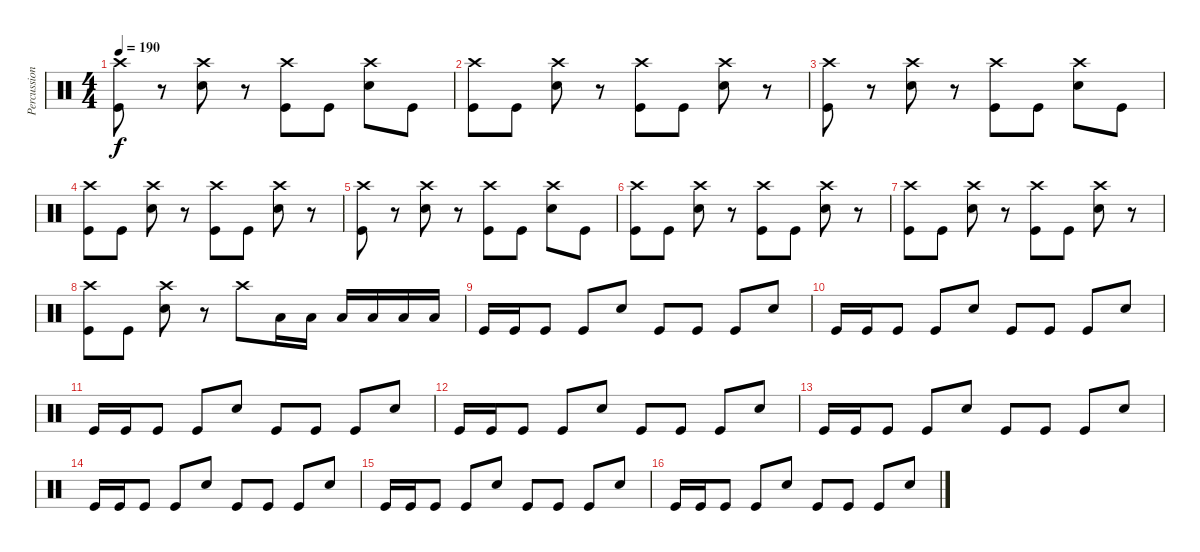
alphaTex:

\track ("Percussion" "Percussion") {instrument percussion}
\staff {score}
\articulation defaults
\ts (4 4)
\tempo 190
\clef neutral
\ks c
("Crash high (hit)" "Kick (hit)").8{dy f} r.8 ("Crash high (hit)" "Electric Snare (hit)").8 r.8 ("Crash high (hit)" "Kick (hit)").8 "Kick (hit)".8 ("Crash high (hit)" "Electric Snare (hit)").8 "Kick (hit)".8 |
("Crash high (hit)" "Kick (hit)").8 "Kick (hit)".8 ("Crash high (hit)" "Electric Snare (hit)").8 r.8 ("Crash high (hit)" "Kick (hit)").8 "Kick (hit)".8 ("Crash high (hit)" "Electric Snare (hit)").8 r.8 |
("Crash high (hit)" "Kick (hit)").8 r.8 ("Crash high (hit)" "Electric Snare (hit)").8 r.8 ("Crash high (hit)" "Kick (hit)").8 "Kick (hit)".8 ("Crash high (hit)" "Electric Snare (hit)").8 "Kick (hit)".8 |
("Crash high (hit)" "Kick (hit)").8 "Kick (hit)".8 ("Crash high (hit)" "Electric Snare (hit)").8 r.8 ("Crash high (hit)" "Kick (hit)").8 "Kick (hit)".8 ("Crash high (hit)" "Electric Snare (hit)").8 r.8 |
("Crash high (hit)" "Kick (hit)").8 r.8 ("Crash high (hit)" "Electric Snare (hit)").8 r.8 ("Crash high (hit)" "Kick (hit)").8 "Kick (hit)".8 ("Crash high (hit)" "Electric Snare (hit)").8 "Kick (hit)".8 |
("Crash high (hit)" "Kick (hit)").8 "Kick (hit)".8 ("Crash high (hit)" "Electric Snare (hit)").8 r.8 ("Crash high (hit)" "Kick (hit)").8 "Kick (hit)".8 ("Crash high (hit)" "Electric Snare (hit)").8 r.8 |
("Crash high (hit)" "Kick (hit)").8 "Kick (hit)".8 ("Crash high (hit)" "Electric Snare (hit)").8 r.8 ("Crash high (hit)" "Kick (hit)").8 "Kick (hit)".8 ("Crash high (hit)" "Electric Snare (hit)").8 r.8 |
("Crash high (hit)" "Kick (hit)").8 "Kick (hit)".8 ("Crash high (hit)" "Electric Snare (hit)").8 r.8 "Crash high (hit)".8 "Low Tom (hit)".16 "Low Tom (hit)".16 "Low Tom (hit)".16 "Low Tom (hit)".16 "Low Tom (hit)".16 "Low Tom (hit)".16 |
"Kick (hit)".16 "Kick (hit)".16 "Kick (hit)".8 "Kick (hit)".8 "Electric Snare (hit)".8 "Kick (hit)".8 "Kick (hit)".8 "Kick (hit)".8 "Electric Snare (hit)".8 |
"Kick (hit)".16 "Kick (hit)".16 "Kick (hit)".8 "Kick (hit)".8 "Electric Snare (hit)".8 "Kick (hit)".8 "Kick (hit)".8 "Kick (hit)".8 "Electric Snare (hit)".8 |
"Kick (hit)".16 "Kick (hit)".16 "Kick (hit)".8 "Kick (hit)".8 "Electric Snare (hit)".8 "Kick (hit)".8 "Kick (hit)".8 "Kick (hit)".8 "Electric Snare (hit)".8 |
"Kick (hit)".16 "Kick (hit)".16 "Kick (hit)".8 "Kick (hit)".8 "Electric Snare (hit)".8 "Kick (hit)".8 "Kick (hit)".8 "Kick (hit)".8 "Electric Snare (hit)".8 |
"Kick (hit)".16 "Kick (hit)".16 "Kick (hit)".8 "Kick (hit)".8 "Electric Snare (hit)".8 "Kick (hit)".8 "Kick (hit)".8 "Kick (hit)".8 "Electric Snare (hit)".8 |
"Kick (hit)".16 "Kick (hit)".16 "Kick (hit)".8 "Kick (hit)".8 "Electric Snare (hit)".8 "Kick (hit)".8 "Kick (hit)".8 "Kick (hit)".8 "Electric Snare (hit)".8 |
"Kick (hit)".16 "Kick (hit)".16 "Kick (hit)".8 "Kick (hit)".8 "Electric Snare (hit)".8 "Kick (hit)".8 "Kick (hit)".8 "Kick (hit)".8 "Electric Snare (hit)".8 |
"Kick (hit)".16 "Kick (hit)".16 "Kick (hit)".8 "Kick (hit)".8 "Electric Snare (hit)".8 "Kick (hit)".8 "Kick (hit)".8 "Kick (hit)".8 "Electric Snare (hit)".8
